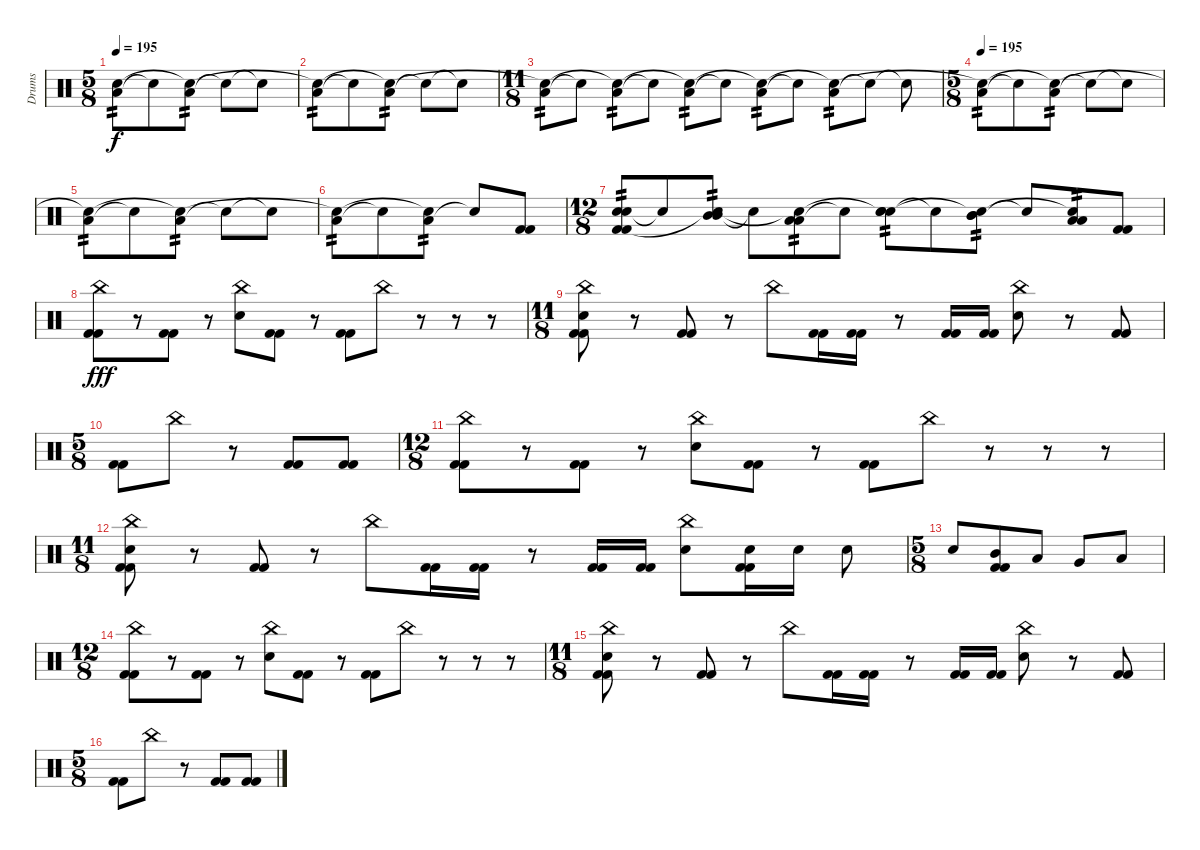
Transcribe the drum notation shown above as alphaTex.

\track ("Drums" "Drums") {instrument percussion}
\staff {score}
\articulation defaults
\ts (5 8)
\tempo 195
\clef neutral
\ks c
("Low Tom (hit)" "Snare (hit)"{t}).8{tp 2 dy f} "Snare (hit)"{t}.8 ("Low Tom (hit)" "Snare (hit)"{t}).8{tp 2} "Snare (hit)"{t}.8 "Snare (hit)"{t}.8 |
("Low Tom (hit)" "Snare (hit)"{t}).8{tp 2} "Snare (hit)"{t}.8 ("Low Tom (hit)" "Snare (hit)"{t}).8{tp 2} "Snare (hit)"{t}.8 "Snare (hit)"{t}.8 |
\ts (11 8)
("Low Tom (hit)" "Snare (hit)"{t}).8{tp 2} "Snare (hit)"{t}.8 ("Low Tom (hit)" "Snare (hit)"{t}).8{tp 2} "Snare (hit)"{t}.8 ("Low Tom (hit)" "Snare (hit)"{t}).8{tp 2} "Snare (hit)"{t}.8 ("Low Tom (hit)" "Snare (hit)"{t}).8{tp 2} "Snare (hit)"{t}.8 ("Low Tom (hit)" "Snare (hit)"{t}).8{tp 2} "Snare (hit)"{t}.8 "Snare (hit)"{t}.8 |
\ts (5 8)
\tempo 190
\tempo 195
("Low Tom (hit)" "Snare (hit)"{t}).8{tp 2} "Snare (hit)"{t}.8 ("Low Tom (hit)" "Snare (hit)"{t}).8{tp 2} "Snare (hit)"{t}.8 "Snare (hit)"{t}.8 |
("Low Tom (hit)" "Snare (hit)"{t}).8{tp 2} "Snare (hit)"{t}.8 ("Low Tom (hit)" "Snare (hit)"{t}).8{tp 2} "Snare (hit)"{t}.8 "Snare (hit)"{t}.8 |
("Low Tom (hit)" "Snare (hit)"{t}).8{tp 2} "Snare (hit)"{t}.8 ("Low Tom (hit)" "Snare (hit)"{t}).8{tp 2} "Snare (hit)"{t}.8 ("Kick (hit) 2" "Kick (hit) 2").8 |
\ts (12 8)
("Electric Snare (hit)" "Electric Snare (hit)" "Kick (hit) 2" "Kick (hit) 2").8{tp 2} "Snare (hit)"{t}.8 ("Mid Tom (hit)" "Mid Tom (hit)" "Snare (hit)"{t}).8{tp 2} "Snare (hit)"{t}.8 ("Low Tom (hit)" "Low Tom (hit)" "Snare (hit)"{t}).8{tp 2} "Snare (hit)"{t}.8 ("Electric Snare (hit)" "Electric Snare (hit)" "Snare (hit)"{t}).8{tp 2} "Snare (hit)"{t}.8 ("Mid Tom (hit)" "Mid Tom (hit)" "Snare (hit)"{t}).8{tp 2} "Snare (hit)"{t}.8 ("Low Tom (hit)" "Low Tom (hit)" "Snare (hit)"{t}).8{tp 2} ("Kick (hit) 2" "Kick (hit) 2").8 |
("China (hit)" "Kick (hit) 2" "Kick (hit) 2").8{dy fff} r.8 ("Kick (hit) 2" "Kick (hit) 2").8 r.8 ("China (hit)" "Electric Snare (hit)").8 ("Kick (hit) 2" "Kick (hit) 2").8 r.8 ("Kick (hit) 2" "Kick (hit) 2").8 "China (hit)".8 r.8 r.8 r.8 |
\ts (11 8)
("China (hit)" "Electric Snare (hit)" "Kick (hit) 2" "Kick (hit) 2").8 r.8 ("Kick (hit) 2" "Kick (hit) 2").8 r.8 "China (hit)".8 ("Kick (hit) 2" "Kick (hit) 2").16 ("Kick (hit) 2" "Kick (hit) 2").16 r.8 ("Kick (hit) 2" "Kick (hit) 2").16 ("Kick (hit) 2" "Kick (hit) 2").16 ("China (hit)" "Electric Snare (hit)").8 r.8 ("Kick (hit) 2" "Kick (hit) 2").8 |
\ts (5 8)
("Kick (hit) 2" "Kick (hit) 2").8 "China (hit)".8 r.8 ("Kick (hit) 2" "Kick (hit) 2").8 ("Kick (hit) 2" "Kick (hit) 2").8 |
\ts (12 8)
("China (hit)" "Kick (hit) 2" "Kick (hit) 2").8 r.8 ("Kick (hit) 2" "Kick (hit) 2").8 r.8 ("China (hit)" "Electric Snare (hit)").8 ("Kick (hit) 2" "Kick (hit) 2").8 r.8 ("Kick (hit) 2" "Kick (hit) 2").8 "China (hit)".8 r.8 r.8 r.8 |
\ts (11 8)
("China (hit)" "Electric Snare (hit)" "Kick (hit) 2" "Kick (hit) 2").8 r.8 ("Kick (hit) 2" "Kick (hit) 2").8 r.8 "China (hit)".8 ("Kick (hit) 2" "Kick (hit) 2").16 ("Kick (hit) 2" "Kick (hit) 2").16 r.8 ("Kick (hit) 2" "Kick (hit) 2").16 ("Kick (hit) 2" "Kick (hit) 2").16 ("China (hit)" "Electric Snare (hit)").8 ("Electric Snare (hit)" "Kick (hit) 2" "Kick (hit) 2").16 "Electric Snare (hit)".16 "Electric Snare (hit)".8 |
\ts (5 8)
"Electric Snare (hit)".8 ("Mid Tom (hit)" "Kick (hit) 2" "Kick (hit) 2").8 "Low Tom (hit)".8 "Very Low Tom (hit)".8 "Low Floor Tom (hit)".8 |
\ts (12 8)
("China (hit)" "Kick (hit) 2" "Kick (hit) 2").8 r.8 ("Kick (hit) 2" "Kick (hit) 2").8 r.8 ("China (hit)" "Electric Snare (hit)").8 ("Kick (hit) 2" "Kick (hit) 2").8 r.8 ("Kick (hit) 2" "Kick (hit) 2").8 "China (hit)".8 r.8 r.8 r.8 |
\ts (11 8)
("China (hit)" "Electric Snare (hit)" "Kick (hit) 2" "Kick (hit) 2").8 r.8 ("Kick (hit) 2" "Kick (hit) 2").8 r.8 "China (hit)".8 ("Kick (hit) 2" "Kick (hit) 2").16 ("Kick (hit) 2" "Kick (hit) 2").16 r.8 ("Kick (hit) 2" "Kick (hit) 2").16 ("Kick (hit) 2" "Kick (hit) 2").16 ("China (hit)" "Electric Snare (hit)").8 r.8 ("Kick (hit) 2" "Kick (hit) 2").8 |
\ts (5 8)
("Kick (hit) 2" "Kick (hit) 2").8 "China (hit)".8 r.8 ("Kick (hit) 2" "Kick (hit) 2").8 ("Kick (hit) 2" "Kick (hit) 2").8
